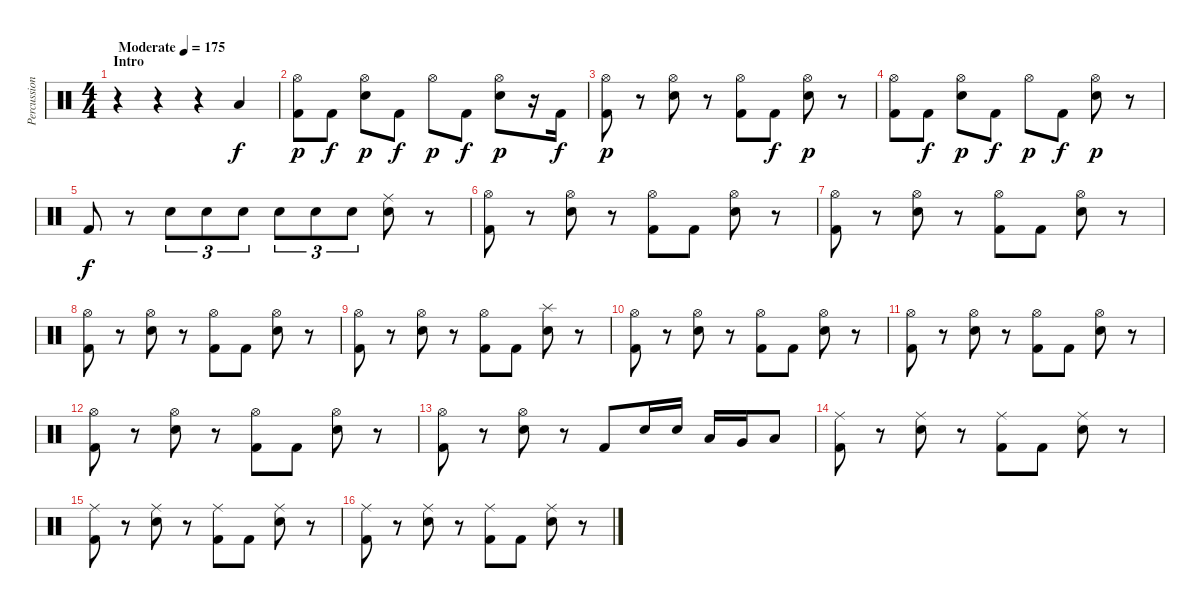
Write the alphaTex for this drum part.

\track ("Percussion" "Percussion") {instrument percussion}
\staff {score}
\articulation defaults
\ts (4 4)
\section ("" "Intro")
\tempo (175 "Moderate")
\clef neutral
\ks c
r.4{dy f} r.4 r.4 "Low Floor Tom (hit)".4 |
("Hi-Hat (open)" "Kick (hit) 2").8{dy p} "Kick (hit) 2".8{dy f} ("Hi-Hat (open)" "Snare (hit) 2").8{dy p} "Kick (hit) 2".8{dy f} "Hi-Hat (open)".8{dy p} "Kick (hit) 2".8{dy f} ("Hi-Hat (open)" "Snare (hit) 2").8{dy p} r.16 "Kick (hit) 2".16{dy f} |
("Hi-Hat (open)" "Kick (hit) 2").8{dy p} r.8 ("Hi-Hat (open)" "Snare (hit) 2").8 r.8 ("Hi-Hat (open)" "Kick (hit) 2").8 "Kick (hit) 2".8{dy f} ("Hi-Hat (open)" "Snare (hit) 2").8{dy p} r.8 |
("Hi-Hat (open)" "Kick (hit) 2").8 "Kick (hit) 2".8{dy f} ("Hi-Hat (open)" "Snare (hit) 2").8{dy p} "Kick (hit) 2".8{dy f} "Hi-Hat (open)".8{dy p} "Kick (hit) 2".8{dy f} ("Hi-Hat (open)" "Snare (hit) 2").8{dy p} r.8 |
"Kick (hit) 2".8{dy f} r.8 "Snare (hit) 2".8{tu (3 2)} "Snare (hit) 2".8{tu (3 2)} "Snare (hit) 2".8{tu (3 2)} "Snare (hit) 2".8{tu (3 2)} "Snare (hit) 2".8{tu (3 2)} "Snare (hit) 2".8{tu (3 2)} ("Ride (middle)" "Snare (hit) 2").8 r.8 |
("Hi-Hat (open)" "Kick (hit) 2").8 r.8 ("Hi-Hat (open)" "Snare (hit) 2").8 r.8 ("Hi-Hat (open)" "Kick (hit) 2").8 "Kick (hit) 2".8 ("Hi-Hat (open)" "Snare (hit) 2").8 r.8 |
("Hi-Hat (open)" "Kick (hit) 2").8 r.8 ("Hi-Hat (open)" "Snare (hit) 2").8 r.8 ("Hi-Hat (open)" "Kick (hit) 2").8 "Kick (hit) 2".8 ("Hi-Hat (open)" "Snare (hit) 2").8 r.8 |
("Hi-Hat (open)" "Kick (hit) 2").8 r.8 ("Hi-Hat (open)" "Snare (hit) 2").8 r.8 ("Hi-Hat (open)" "Kick (hit) 2").8 "Kick (hit) 2".8 ("Hi-Hat (open)" "Snare (hit) 2").8 r.8 |
("Hi-Hat (open)" "Kick (hit) 2").8 r.8 ("Hi-Hat (open)" "Snare (hit) 2").8 r.8 ("Hi-Hat (open)" "Kick (hit) 2").8 "Kick (hit) 2".8 ("Splash (hit)" "Snare (hit) 2").8 r.8 |
("Hi-Hat (open)" "Kick (hit) 2").8 r.8 ("Hi-Hat (open)" "Snare (hit) 2").8 r.8 ("Hi-Hat (open)" "Kick (hit) 2").8 "Kick (hit) 2".8 ("Hi-Hat (open)" "Snare (hit) 2").8 r.8 |
("Hi-Hat (open)" "Kick (hit) 2").8 r.8 ("Hi-Hat (open)" "Snare (hit) 2").8 r.8 ("Hi-Hat (open)" "Kick (hit) 2").8 "Kick (hit) 2".8 ("Hi-Hat (open)" "Snare (hit) 2").8 r.8 |
("Hi-Hat (open)" "Kick (hit) 2").8 r.8 ("Hi-Hat (open)" "Snare (hit) 2").8 r.8 ("Hi-Hat (open)" "Kick (hit) 2").8 "Kick (hit) 2".8 ("Hi-Hat (open)" "Snare (hit) 2").8 r.8 |
("Hi-Hat (open)" "Kick (hit) 2").8 r.8 ("Hi-Hat (open)" "Snare (hit) 2").8 r.8 "Kick (hit) 2".8 "Snare (hit) 2".16 "Snare (hit) 2".16 "Low Tom (hit)".16 "Very Low Tom (hit)".16 "Low Floor Tom (hit)".8 |
("Ride (middle)" "Kick (hit) 2").8 r.8 ("Ride (middle)" "Snare (hit) 2").8 r.8 ("Ride (middle)" "Kick (hit) 2").8 "Kick (hit) 2".8 ("Ride (middle)" "Snare (hit) 2").8 r.8 |
("Ride (middle)" "Kick (hit) 2").8 r.8 ("Ride (middle)" "Snare (hit) 2").8 r.8 ("Ride (middle)" "Kick (hit) 2").8 "Kick (hit) 2".8 ("Ride (middle)" "Snare (hit) 2").8 r.8 |
("Ride (middle)" "Kick (hit) 2").8 r.8 ("Ride (middle)" "Snare (hit) 2").8 r.8 ("Ride (middle)" "Kick (hit) 2").8 "Kick (hit) 2".8 ("Ride (middle)" "Snare (hit) 2").8 r.8
